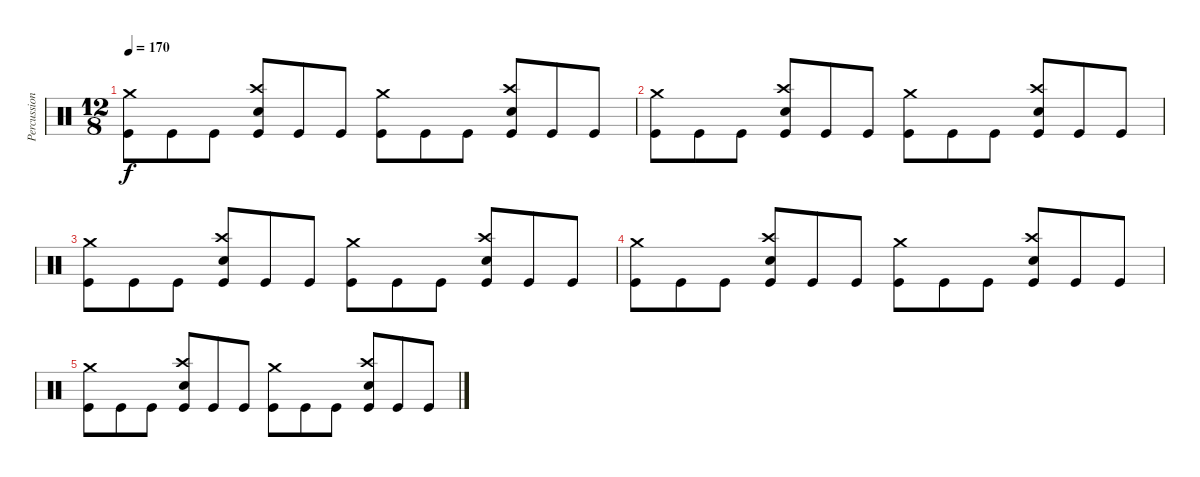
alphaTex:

\track ("Percussion" "Percussion") {instrument percussion}
\staff {score}
\articulation defaults
\ts (12 8)
\tempo 170
\clef neutral
\ks c
("Crash medium (hit)" "Kick (hit)").8{dy f} "Kick (hit)".8 "Kick (hit)".8 ("Crash high (hit)" "Snare (hit) 2" "Kick (hit)").8 "Kick (hit)".8 "Kick (hit)".8 ("Crash medium (hit)" "Kick (hit)").8 "Kick (hit)".8 "Kick (hit)".8 ("Crash high (hit)" "Snare (hit) 2" "Kick (hit)").8 "Kick (hit)".8 "Kick (hit)".8 |
("Crash medium (hit)" "Kick (hit)").8 "Kick (hit)".8 "Kick (hit)".8 ("Crash high (hit)" "Snare (hit) 2" "Kick (hit)").8 "Kick (hit)".8 "Kick (hit)".8 ("Crash medium (hit)" "Kick (hit)").8 "Kick (hit)".8 "Kick (hit)".8 ("Crash high (hit)" "Snare (hit) 2" "Kick (hit)").8 "Kick (hit)".8 "Kick (hit)".8 |
("Crash medium (hit)" "Kick (hit)").8 "Kick (hit)".8 "Kick (hit)".8 ("Crash high (hit)" "Snare (hit) 2" "Kick (hit)").8 "Kick (hit)".8 "Kick (hit)".8 ("Crash medium (hit)" "Kick (hit)").8 "Kick (hit)".8 "Kick (hit)".8 ("Crash high (hit)" "Snare (hit) 2" "Kick (hit)").8 "Kick (hit)".8 "Kick (hit)".8 |
("Crash medium (hit)" "Kick (hit)").8 "Kick (hit)".8 "Kick (hit)".8 ("Crash high (hit)" "Snare (hit) 2" "Kick (hit)").8 "Kick (hit)".8 "Kick (hit)".8 ("Crash medium (hit)" "Kick (hit)").8 "Kick (hit)".8 "Kick (hit)".8 ("Crash high (hit)" "Snare (hit) 2" "Kick (hit)").8 "Kick (hit)".8 "Kick (hit)".8 |
("Crash medium (hit)" "Kick (hit)").8 "Kick (hit)".8 "Kick (hit)".8 ("Crash high (hit)" "Snare (hit) 2" "Kick (hit)").8 "Kick (hit)".8 "Kick (hit)".8 ("Crash medium (hit)" "Kick (hit)").8 "Kick (hit)".8 "Kick (hit)".8 ("Crash high (hit)" "Snare (hit) 2" "Kick (hit)").8 "Kick (hit)".8 "Kick (hit)".8
